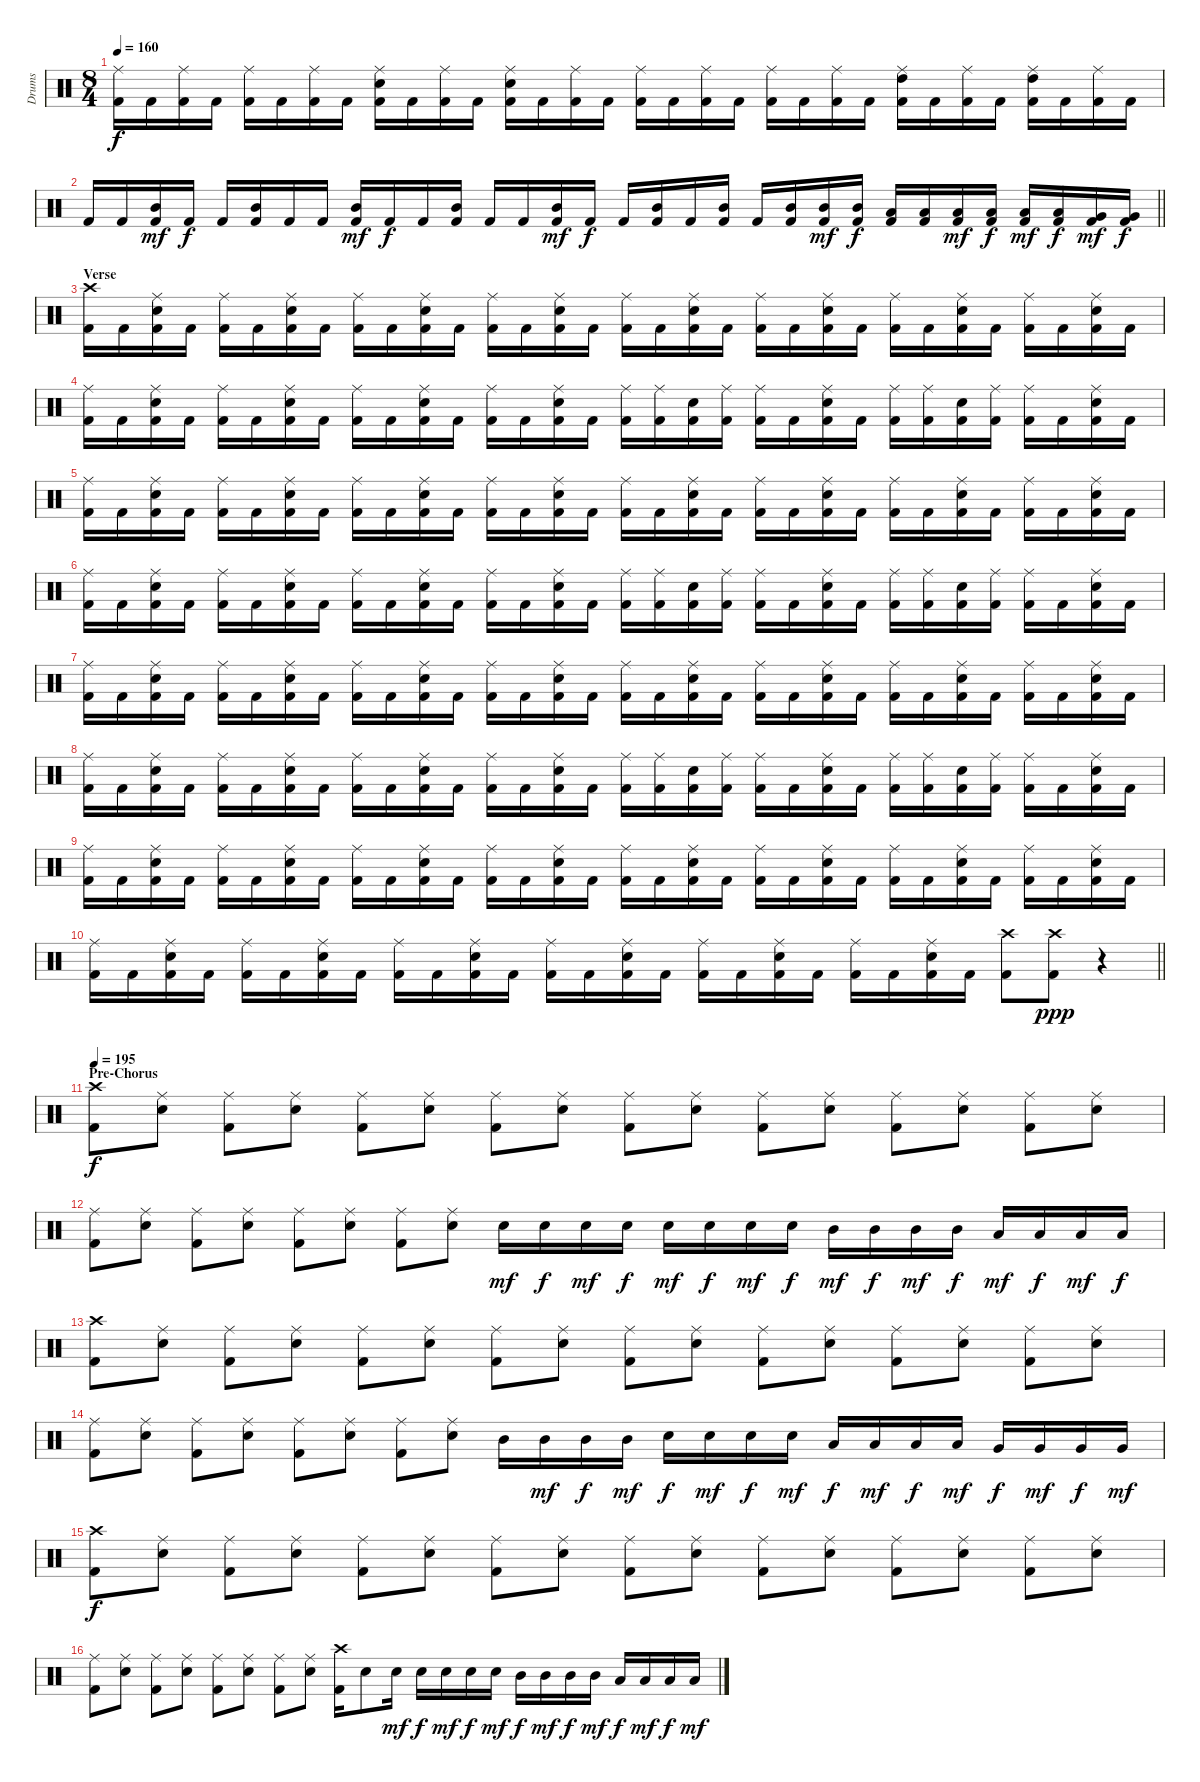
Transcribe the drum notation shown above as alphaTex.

\track ("Drums" "Drums") {instrument percussion}
\staff {score}
\articulation defaults
\ts (8 4)
\tempo 160
\clef neutral
\ks c
("Ride (middle)" "Kick (hit) 2").16{dy f} "Kick (hit) 2".16 ("Ride (middle)" "Kick (hit) 2").16 "Kick (hit) 2".16 ("Ride (middle)" "Kick (hit) 2").16 "Kick (hit) 2".16 ("Ride (middle)" "Kick (hit) 2").16 "Kick (hit) 2".16 ("Ride (middle)" "Snare (hit) 2" "Kick (hit) 2").16 "Kick (hit) 2".16 ("Ride (middle)" "Kick (hit) 2").16 "Kick (hit) 2".16 ("Ride (middle)" "Snare (hit) 2" "Kick (hit) 2").16 "Kick (hit) 2".16 ("Ride (middle)" "Kick (hit) 2").16 "Kick (hit) 2".16 ("Ride (middle)" "Kick (hit) 2").16 "Kick (hit) 2".16 ("Ride (middle)" "Kick (hit) 2").16 "Kick (hit) 2".16 ("Ride (middle)" "Kick (hit) 2").16 "Kick (hit) 2".16 ("Ride (middle)" "Kick (hit) 2").16 "Kick (hit) 2".16 ("Ride (middle)" "High Tom (hit)" "Kick (hit) 2").16 "Kick (hit) 2".16 ("Ride (middle)" "Kick (hit) 2").16 "Kick (hit) 2".16 ("Ride (middle)" "High Tom (hit)" "Kick (hit) 2").16 "Kick (hit) 2".16 ("Ride (middle)" "Kick (hit) 2").16 "Kick (hit) 2".16 |
\barLineRight lightlight "Kick (hit) 2".16 "Kick (hit) 2".16
("Mid Tom (hit)" "Kick (hit) 2").16{dy mf} "Kick (hit) 2".16{dy f} "Kick (hit) 2".16 ("Mid Tom (hit)" "Kick (hit) 2").16 "Kick (hit) 2".16 "Kick (hit) 2".16 ("Mid Tom (hit)" "Kick (hit) 2").16{dy mf} "Kick (hit) 2".16{dy f} "Kick (hit) 2".16 ("Mid Tom (hit)" "Kick (hit) 2").16 "Kick (hit) 2".16 "Kick (hit) 2".16 ("Mid Tom (hit)" "Kick (hit) 2").16{dy mf} "Kick (hit) 2".16{dy f} "Kick (hit) 2".16 ("Mid Tom (hit)" "Kick (hit) 2").16 "Kick (hit) 2".16 ("Mid Tom (hit)" "Kick (hit) 2").16 "Kick (hit) 2".16 ("Mid Tom (hit)" "Kick (hit) 2").16 ("Mid Tom (hit)" "Kick (hit) 2").16{dy mf} ("Mid Tom (hit)" "Kick (hit) 2").16{dy f} ("Low Tom (hit)" "Kick (hit) 2").16 ("Low Tom (hit)" "Kick (hit) 2").16 ("Low Tom (hit)" "Kick (hit) 2").16{dy mf} ("Low Tom (hit)" "Kick (hit) 2").16{dy f} ("Low Tom (hit)" "Kick (hit) 2").16{dy mf} ("Low Tom (hit)" "Kick (hit) 2").16{dy f} ("Very Low Tom (hit)" "Kick (hit) 2").16{dy mf} ("Very Low Tom (hit)" "Kick (hit) 2").16{dy f} |
\section ("" "Verse")
("Crash high (hit)" "Kick (hit) 2").16 "Kick (hit) 2".16 ("Ride (middle)" "Snare (hit) 2" "Kick (hit) 2").16 "Kick (hit) 2".16 ("Ride (middle)" "Kick (hit) 2").16 "Kick (hit) 2".16 ("Ride (middle)" "Snare (hit) 2" "Kick (hit) 2").16 "Kick (hit) 2".16 ("Ride (middle)" "Kick (hit) 2").16 "Kick (hit) 2".16 ("Ride (middle)" "Snare (hit) 2" "Kick (hit) 2").16 "Kick (hit) 2".16 ("Ride (middle)" "Kick (hit) 2").16 "Kick (hit) 2".16 ("Ride (middle)" "Snare (hit) 2" "Kick (hit) 2").16 "Kick (hit) 2".16 ("Ride (middle)" "Kick (hit) 2").16 "Kick (hit) 2".16 ("Ride (middle)" "Snare (hit) 2" "Kick (hit) 2").16 "Kick (hit) 2".16 ("Ride (middle)" "Kick (hit) 2").16 "Kick (hit) 2".16 ("Ride (middle)" "Snare (hit) 2" "Kick (hit) 2").16 "Kick (hit) 2".16 ("Ride (middle)" "Kick (hit) 2").16 "Kick (hit) 2".16 ("Ride (middle)" "Snare (hit) 2" "Kick (hit) 2").16 "Kick (hit) 2".16 ("Ride (middle)" "Kick (hit) 2").16 "Kick (hit) 2".16 ("Ride (middle)" "Snare (hit) 2" "Kick (hit) 2").16 "Kick (hit) 2".16 |
("Ride (middle)" "Kick (hit) 2").16 "Kick (hit) 2".16 ("Ride (middle)" "Snare (hit) 2" "Kick (hit) 2").16 "Kick (hit) 2".16 ("Ride (middle)" "Kick (hit) 2").16 "Kick (hit) 2".16 ("Ride (middle)" "Snare (hit) 2" "Kick (hit) 2").16 "Kick (hit) 2".16 ("Ride (middle)" "Kick (hit) 2").16 "Kick (hit) 2".16 ("Ride (middle)" "Snare (hit) 2" "Kick (hit) 2").16 "Kick (hit) 2".16 ("Ride (middle)" "Kick (hit) 2").16 "Kick (hit) 2".16 ("Ride (middle)" "Snare (hit) 2" "Kick (hit) 2").16 "Kick (hit) 2".16 ("Ride (middle)" "Kick (hit) 2").16 ("Ride (middle)" "Kick (hit) 2").16 ("Snare (hit) 2" "Kick (hit) 2").16 ("Ride (middle)" "Kick (hit) 2").16 ("Ride (middle)" "Kick (hit) 2").16 "Kick (hit) 2".16 ("Ride (middle)" "Snare (hit) 2" "Kick (hit) 2").16 "Kick (hit) 2".16 ("Ride (middle)" "Kick (hit) 2").16 ("Ride (middle)" "Kick (hit) 2").16 ("Snare (hit) 2" "Kick (hit) 2").16 ("Ride (middle)" "Kick (hit) 2").16 ("Ride (middle)" "Kick (hit) 2").16 "Kick (hit) 2".16 ("Ride (middle)" "Snare (hit) 2" "Kick (hit) 2").16 "Kick (hit) 2".16 |
("Ride (middle)" "Kick (hit) 2").16 "Kick (hit) 2".16 ("Ride (middle)" "Snare (hit) 2" "Kick (hit) 2").16 "Kick (hit) 2".16 ("Ride (middle)" "Kick (hit) 2").16 "Kick (hit) 2".16 ("Ride (middle)" "Snare (hit) 2" "Kick (hit) 2").16 "Kick (hit) 2".16 ("Ride (middle)" "Kick (hit) 2").16 "Kick (hit) 2".16 ("Ride (middle)" "Snare (hit) 2" "Kick (hit) 2").16 "Kick (hit) 2".16 ("Ride (middle)" "Kick (hit) 2").16 "Kick (hit) 2".16 ("Ride (middle)" "Snare (hit) 2" "Kick (hit) 2").16 "Kick (hit) 2".16 ("Ride (middle)" "Kick (hit) 2").16 "Kick (hit) 2".16 ("Ride (middle)" "Snare (hit) 2" "Kick (hit) 2").16 "Kick (hit) 2".16 ("Ride (middle)" "Kick (hit) 2").16 "Kick (hit) 2".16 ("Ride (middle)" "Snare (hit) 2" "Kick (hit) 2").16 "Kick (hit) 2".16 ("Ride (middle)" "Kick (hit) 2").16 "Kick (hit) 2".16 ("Ride (middle)" "Snare (hit) 2" "Kick (hit) 2").16 "Kick (hit) 2".16 ("Ride (middle)" "Kick (hit) 2").16 "Kick (hit) 2".16 ("Ride (middle)" "Snare (hit) 2" "Kick (hit) 2").16 "Kick (hit) 2".16 |
("Ride (middle)" "Kick (hit) 2").16 "Kick (hit) 2".16 ("Ride (middle)" "Snare (hit) 2" "Kick (hit) 2").16 "Kick (hit) 2".16 ("Ride (middle)" "Kick (hit) 2").16 "Kick (hit) 2".16 ("Ride (middle)" "Snare (hit) 2" "Kick (hit) 2").16 "Kick (hit) 2".16 ("Ride (middle)" "Kick (hit) 2").16 "Kick (hit) 2".16 ("Ride (middle)" "Snare (hit) 2" "Kick (hit) 2").16 "Kick (hit) 2".16 ("Ride (middle)" "Kick (hit) 2").16 "Kick (hit) 2".16 ("Ride (middle)" "Snare (hit) 2" "Kick (hit) 2").16 "Kick (hit) 2".16 ("Ride (middle)" "Kick (hit) 2").16 ("Ride (middle)" "Kick (hit) 2").16 ("Snare (hit) 2" "Kick (hit) 2").16 ("Ride (middle)" "Kick (hit) 2").16 ("Ride (middle)" "Kick (hit) 2").16 "Kick (hit) 2".16 ("Ride (middle)" "Snare (hit) 2" "Kick (hit) 2").16 "Kick (hit) 2".16 ("Ride (middle)" "Kick (hit) 2").16 ("Ride (middle)" "Kick (hit) 2").16 ("Snare (hit) 2" "Kick (hit) 2").16 ("Ride (middle)" "Kick (hit) 2").16 ("Ride (middle)" "Kick (hit) 2").16 "Kick (hit) 2".16 ("Ride (middle)" "Snare (hit) 2" "Kick (hit) 2").16 "Kick (hit) 2".16 |
("Ride (middle)" "Kick (hit) 2").16 "Kick (hit) 2".16 ("Ride (middle)" "Snare (hit) 2" "Kick (hit) 2").16 "Kick (hit) 2".16 ("Ride (middle)" "Kick (hit) 2").16 "Kick (hit) 2".16 ("Ride (middle)" "Snare (hit) 2" "Kick (hit) 2").16 "Kick (hit) 2".16 ("Ride (middle)" "Kick (hit) 2").16 "Kick (hit) 2".16 ("Ride (middle)" "Snare (hit) 2" "Kick (hit) 2").16 "Kick (hit) 2".16 ("Ride (middle)" "Kick (hit) 2").16 "Kick (hit) 2".16 ("Ride (middle)" "Snare (hit) 2" "Kick (hit) 2").16 "Kick (hit) 2".16 ("Ride (middle)" "Kick (hit) 2").16 "Kick (hit) 2".16 ("Ride (middle)" "Snare (hit) 2" "Kick (hit) 2").16 "Kick (hit) 2".16 ("Ride (middle)" "Kick (hit) 2").16 "Kick (hit) 2".16 ("Ride (middle)" "Snare (hit) 2" "Kick (hit) 2").16 "Kick (hit) 2".16 ("Ride (middle)" "Kick (hit) 2").16 "Kick (hit) 2".16 ("Ride (middle)" "Snare (hit) 2" "Kick (hit) 2").16 "Kick (hit) 2".16 ("Ride (middle)" "Kick (hit) 2").16 "Kick (hit) 2".16 ("Ride (middle)" "Snare (hit) 2" "Kick (hit) 2").16 "Kick (hit) 2".16 |
("Ride (middle)" "Kick (hit) 2").16 "Kick (hit) 2".16 ("Ride (middle)" "Snare (hit) 2" "Kick (hit) 2").16 "Kick (hit) 2".16 ("Ride (middle)" "Kick (hit) 2").16 "Kick (hit) 2".16 ("Ride (middle)" "Snare (hit) 2" "Kick (hit) 2").16 "Kick (hit) 2".16 ("Ride (middle)" "Kick (hit) 2").16 "Kick (hit) 2".16 ("Ride (middle)" "Snare (hit) 2" "Kick (hit) 2").16 "Kick (hit) 2".16 ("Ride (middle)" "Kick (hit) 2").16 "Kick (hit) 2".16 ("Ride (middle)" "Snare (hit) 2" "Kick (hit) 2").16 "Kick (hit) 2".16 ("Ride (middle)" "Kick (hit) 2").16 ("Ride (middle)" "Kick (hit) 2").16 ("Snare (hit) 2" "Kick (hit) 2").16 ("Ride (middle)" "Kick (hit) 2").16 ("Ride (middle)" "Kick (hit) 2").16 "Kick (hit) 2".16 ("Ride (middle)" "Snare (hit) 2" "Kick (hit) 2").16 "Kick (hit) 2".16 ("Ride (middle)" "Kick (hit) 2").16 ("Ride (middle)" "Kick (hit) 2").16 ("Snare (hit) 2" "Kick (hit) 2").16 ("Ride (middle)" "Kick (hit) 2").16 ("Ride (middle)" "Kick (hit) 2").16 "Kick (hit) 2".16 ("Ride (middle)" "Snare (hit) 2" "Kick (hit) 2").16 "Kick (hit) 2".16 |
("Ride (middle)" "Kick (hit) 2").16 "Kick (hit) 2".16 ("Ride (middle)" "Snare (hit) 2" "Kick (hit) 2").16 "Kick (hit) 2".16 ("Ride (middle)" "Kick (hit) 2").16 "Kick (hit) 2".16 ("Ride (middle)" "Snare (hit) 2" "Kick (hit) 2").16 "Kick (hit) 2".16 ("Ride (middle)" "Kick (hit) 2").16 "Kick (hit) 2".16 ("Ride (middle)" "Snare (hit) 2" "Kick (hit) 2").16 "Kick (hit) 2".16 ("Ride (middle)" "Kick (hit) 2").16 "Kick (hit) 2".16 ("Ride (middle)" "Snare (hit) 2" "Kick (hit) 2").16 "Kick (hit) 2".16 ("Ride (middle)" "Kick (hit) 2").16 "Kick (hit) 2".16 ("Ride (middle)" "Snare (hit) 2" "Kick (hit) 2").16 "Kick (hit) 2".16 ("Ride (middle)" "Kick (hit) 2").16 "Kick (hit) 2".16 ("Ride (middle)" "Snare (hit) 2" "Kick (hit) 2").16 "Kick (hit) 2".16 ("Ride (middle)" "Kick (hit) 2").16 "Kick (hit) 2".16 ("Ride (middle)" "Snare (hit) 2" "Kick (hit) 2").16 "Kick (hit) 2".16 ("Ride (middle)" "Kick (hit) 2").16 "Kick (hit) 2".16 ("Ride (middle)" "Snare (hit) 2" "Kick (hit) 2").16 "Kick (hit) 2".16 |
\barLineRight lightlight
("Ride (middle)" "Kick (hit) 2").16 "Kick (hit) 2".16 ("Ride (middle)" "Snare (hit) 2" "Kick (hit) 2").16 "Kick (hit) 2".16 ("Ride (middle)" "Kick (hit) 2").16 "Kick (hit) 2".16 ("Ride (middle)" "Snare (hit) 2" "Kick (hit) 2").16 "Kick (hit) 2".16 ("Ride (middle)" "Kick (hit) 2").16 "Kick (hit) 2".16 ("Ride (middle)" "Snare (hit) 2" "Kick (hit) 2").16 "Kick (hit) 2".16 ("Ride (middle)" "Kick (hit) 2").16 "Kick (hit) 2".16 ("Ride (middle)" "Snare (hit) 2" "Kick (hit) 2").16 "Kick (hit) 2".16 ("Ride (middle)" "Kick (hit) 2").16 "Kick (hit) 2".16 ("Ride (middle)" "Snare (hit) 2" "Kick (hit) 2").16 "Kick (hit) 2".16 ("Ride (middle)" "Kick (hit) 2").16 "Kick (hit) 2".16 ("Ride (middle)" "Snare (hit) 2" "Kick (hit) 2").16 "Kick (hit) 2".16 ("Crash high (hit)" "Kick (hit) 2").8 ("Crash high (hit)" "Kick (hit) 2").8{dy ppp} r.4 |
\section ("" "Pre-Chorus")
\tempo 195
("Crash high (hit)" "Kick (hit) 2").8{dy f} ("Ride (middle)" "Snare (hit) 2").8 ("Ride (middle)" "Kick (hit) 2").8 ("Ride (middle)" "Snare (hit) 2").8 ("Ride (middle)" "Kick (hit) 2").8 ("Ride (middle)" "Snare (hit) 2").8 ("Ride (middle)" "Kick (hit) 2").8 ("Ride (middle)" "Snare (hit) 2").8 ("Ride (middle)" "Kick (hit) 2").8 ("Ride (middle)" "Snare (hit) 2").8 ("Ride (middle)" "Kick (hit) 2").8 ("Ride (middle)" "Snare (hit) 2").8 ("Ride (middle)" "Kick (hit) 2").8 ("Ride (middle)" "Snare (hit) 2").8 ("Ride (middle)" "Kick (hit) 2").8 ("Ride (middle)" "Snare (hit) 2").8 |
("Ride (middle)" "Kick (hit) 2").8 ("Ride (middle)" "Snare (hit) 2").8 ("Ride (middle)" "Kick (hit) 2").8 ("Ride (middle)" "Snare (hit) 2").8 ("Ride (middle)" "Kick (hit) 2").8 ("Ride (middle)" "Snare (hit) 2").8 ("Ride (middle)" "Kick (hit) 2").8 ("Ride (middle)" "Snare (hit) 2").8 "Snare (hit) 2".16{dy mf} "Snare (hit) 2".16{dy f} "Snare (hit) 2".16{dy mf} "Snare (hit) 2".16{dy f} "Snare (hit) 2".16{dy mf} "Snare (hit) 2".16{dy f} "Snare (hit) 2".16{dy mf} "Snare (hit) 2".16{dy f} "Mid Tom (hit)".16{dy mf} "Mid Tom (hit)".16{dy f} "Mid Tom (hit)".16{dy mf} "Mid Tom (hit)".16{dy f} "Low Tom (hit)".16{dy mf} "Low Tom (hit)".16{dy f} "Low Tom (hit)".16{dy mf} "Low Tom (hit)".16{dy f} |
("Crash high (hit)" "Kick (hit) 2").8 ("Ride (middle)" "Snare (hit) 2").8 ("Ride (middle)" "Kick (hit) 2").8 ("Ride (middle)" "Snare (hit) 2").8 ("Ride (middle)" "Kick (hit) 2").8 ("Ride (middle)" "Snare (hit) 2").8 ("Ride (middle)" "Kick (hit) 2").8 ("Ride (middle)" "Snare (hit) 2").8 ("Ride (middle)" "Kick (hit) 2").8 ("Ride (middle)" "Snare (hit) 2").8 ("Ride (middle)" "Kick (hit) 2").8 ("Ride (middle)" "Snare (hit) 2").8 ("Ride (middle)" "Kick (hit) 2").8 ("Ride (middle)" "Snare (hit) 2").8 ("Ride (middle)" "Kick (hit) 2").8 ("Ride (middle)" "Snare (hit) 2").8 |
("Ride (middle)" "Kick (hit) 2").8 ("Ride (middle)" "Snare (hit) 2").8 ("Ride (middle)" "Kick (hit) 2").8 ("Ride (middle)" "Snare (hit) 2").8 ("Ride (middle)" "Kick (hit) 2").8 ("Ride (middle)" "Snare (hit) 2").8 ("Ride (middle)" "Kick (hit) 2").8 ("Ride (middle)" "Snare (hit) 2").8 "Mid Tom (hit)".16 "Mid Tom (hit)".16{dy mf} "Mid Tom (hit)".16{dy f} "Mid Tom (hit)".16{dy mf} "Snare (hit) 2".16{dy f} "Snare (hit) 2".16{dy mf} "Snare (hit) 2".16{dy f} "Snare (hit) 2".16{dy mf} "Low Tom (hit)".16{dy f} "Low Tom (hit)".16{dy mf} "Low Tom (hit)".16{dy f} "Low Tom (hit)".16{dy mf} "Very Low Tom (hit)".16{dy f} "Very Low Tom (hit)".16{dy mf} "Very Low Tom (hit)".16{dy f} "Very Low Tom (hit)".16{dy mf} |
("Crash high (hit)" "Kick (hit) 2").8{dy f} ("Ride (middle)" "Snare (hit) 2").8 ("Ride (middle)" "Kick (hit) 2").8 ("Ride (middle)" "Snare (hit) 2").8 ("Ride (middle)" "Kick (hit) 2").8 ("Ride (middle)" "Snare (hit) 2").8 ("Ride (middle)" "Kick (hit) 2").8 ("Ride (middle)" "Snare (hit) 2").8 ("Ride (middle)" "Kick (hit) 2").8 ("Ride (middle)" "Snare (hit) 2").8 ("Ride (middle)" "Kick (hit) 2").8 ("Ride (middle)" "Snare (hit) 2").8 ("Ride (middle)" "Kick (hit) 2").8 ("Ride (middle)" "Snare (hit) 2").8 ("Ride (middle)" "Kick (hit) 2").8 ("Ride (middle)" "Snare (hit) 2").8 |
("Ride (middle)" "Kick (hit) 2").8 ("Ride (middle)" "Snare (hit) 2").8 ("Ride (middle)" "Kick (hit) 2").8 ("Ride (middle)" "Snare (hit) 2").8 ("Ride (middle)" "Kick (hit) 2").8 ("Ride (middle)" "Snare (hit) 2").8 ("Ride (middle)" "Kick (hit) 2").8 ("Ride (middle)" "Snare (hit) 2").8 ("Crash high (hit)" "Kick (hit) 2").16 "Snare (hit) 2".8 "Snare (hit) 2".16{dy mf} "Snare (hit) 2".16{dy f} "Snare (hit) 2".16{dy mf} "Snare (hit) 2".16{dy f} "Snare (hit) 2".16{dy mf} "Mid Tom (hit)".16{dy f} "Mid Tom (hit)".16{dy mf} "Mid Tom (hit)".16{dy f} "Mid Tom (hit)".16{dy mf} "Low Tom (hit)".16{dy f} "Low Tom (hit)".16{dy mf} "Low Tom (hit)".16{dy f} "Low Tom (hit)".16{dy mf}
